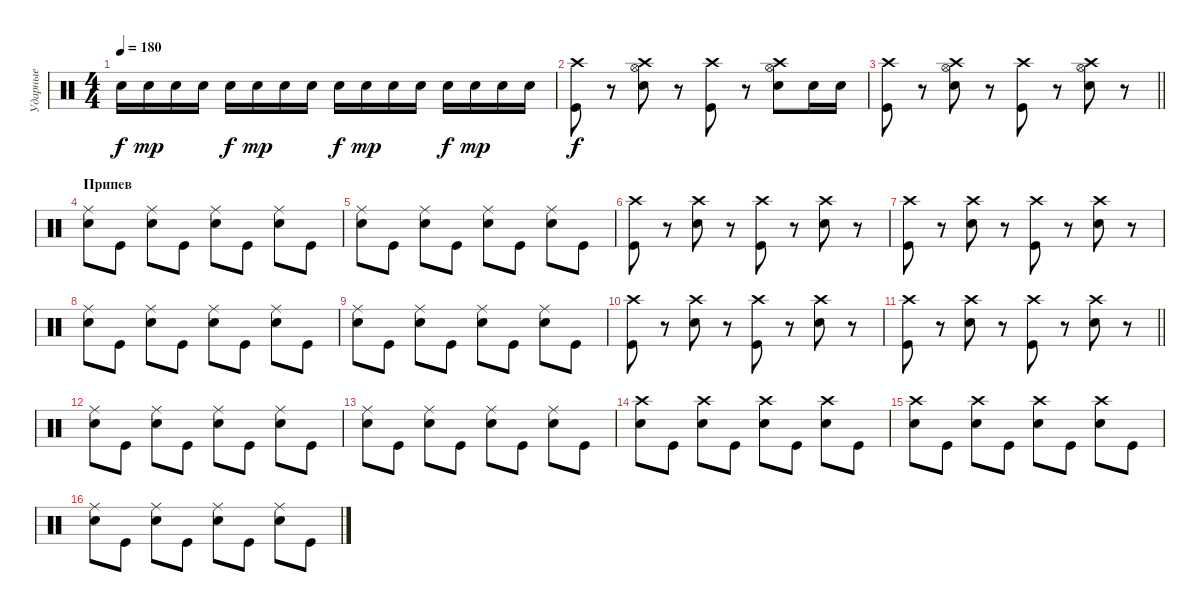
\track ("Ударные" "Ударные") {instrument percussion}
\staff {score}
\articulation defaults
\ts (4 4)
\tempo 180
\clef neutral
\ks c "Electric Snare (hit)".16{dy f} "Electric Snare (hit)".16{dy mp} "Electric Snare (hit)".16 "Electric Snare (hit)".16 "Electric Snare (hit)".16{dy f} "Electric Snare (hit)".16{dy mp} "Electric Snare (hit)".16 "Electric Snare (hit)".16 "Electric Snare (hit)".16{dy f} "Electric Snare (hit)".16{dy mp} "Electric Snare (hit)".16 "Electric Snare (hit)".16 "Electric Snare (hit)".16{dy f} "Electric Snare (hit)".16{dy mp} "Electric Snare (hit)".16 "Electric Snare (hit)".16
|
("Crash high (hit)" "Kick (hit)").8{dy f} r.8 ("Crash high (hit)" "Hi-Hat (open)" "Electric Snare (hit)").8 r.8 ("Crash high (hit)" "Kick (hit)").8 r.8 ("Crash high (hit)" "Hi-Hat (open)" "Electric Snare (hit)").8 "Electric Snare (hit)".16 "Electric Snare (hit)".16 |
\barLineRight lightlight
("Crash high (hit)" "Kick (hit)").8 r.8 ("Crash high (hit)" "Hi-Hat (open)" "Electric Snare (hit)").8 r.8 ("Crash high (hit)" "Kick (hit)").8 r.8 ("Crash high (hit)" "Hi-Hat (open)" "Electric Snare (hit)").8 r.8 |
\section ("" "Припев")
("Ride (middle)" "Electric Snare (hit)").8 "Kick (hit)".8 ("Ride (middle)" "Electric Snare (hit)").8 "Kick (hit)".8 ("Ride (middle)" "Electric Snare (hit)").8 "Kick (hit)".8 ("Ride (middle)" "Electric Snare (hit)").8 "Kick (hit)".8 |
("Ride (middle)" "Electric Snare (hit)").8 "Kick (hit)".8 ("Ride (middle)" "Electric Snare (hit)").8 "Kick (hit)".8 ("Ride (middle)" "Electric Snare (hit)").8 "Kick (hit)".8 ("Ride (middle)" "Electric Snare (hit)").8 "Kick (hit)".8 |
("Crash high (hit)" "Kick (hit)").8 r.8 ("Crash high (hit)" "Electric Snare (hit)").8 r.8 ("Crash high (hit)" "Kick (hit)").8 r.8 ("Crash high (hit)" "Electric Snare (hit)").8 r.8 |
("Crash high (hit)" "Kick (hit)").8 r.8 ("Crash high (hit)" "Electric Snare (hit)").8 r.8 ("Crash high (hit)" "Kick (hit)").8 r.8 ("Crash high (hit)" "Electric Snare (hit)").8 r.8 |
("Ride (middle)" "Electric Snare (hit)").8 "Kick (hit)".8 ("Ride (middle)" "Electric Snare (hit)").8 "Kick (hit)".8 ("Ride (middle)" "Electric Snare (hit)").8 "Kick (hit)".8 ("Ride (middle)" "Electric Snare (hit)").8 "Kick (hit)".8 |
("Ride (middle)" "Electric Snare (hit)").8 "Kick (hit)".8 ("Ride (middle)" "Electric Snare (hit)").8 "Kick (hit)".8 ("Ride (middle)" "Electric Snare (hit)").8 "Kick (hit)".8 ("Ride (middle)" "Electric Snare (hit)").8 "Kick (hit)".8 |
("Crash high (hit)" "Kick (hit)").8 r.8 ("Crash high (hit)" "Electric Snare (hit)").8 r.8 ("Crash high (hit)" "Kick (hit)").8 r.8 ("Crash high (hit)" "Electric Snare (hit)").8 r.8 |
\barLineRight lightlight
("Crash high (hit)" "Kick (hit)").8 r.8 ("Crash high (hit)" "Electric Snare (hit)").8 r.8 ("Crash high (hit)" "Kick (hit)").8 r.8 ("Crash high (hit)" "Electric Snare (hit)").8 r.8 |
\section ("" " ")
("Ride (middle)" "Electric Snare (hit)").8 "Kick (hit)".8 ("Ride (middle)" "Electric Snare (hit)").8 "Kick (hit)".8 ("Ride (middle)" "Electric Snare (hit)").8 "Kick (hit)".8 ("Ride (middle)" "Electric Snare (hit)").8 "Kick (hit)".8 |
("Ride (middle)" "Electric Snare (hit)").8 "Kick (hit)".8 ("Ride (middle)" "Electric Snare (hit)").8 "Kick (hit)".8 ("Ride (middle)" "Electric Snare (hit)").8 "Kick (hit)".8 ("Ride (middle)" "Electric Snare (hit)").8 "Kick (hit)".8 |
("Crash high (hit)" "Electric Snare (hit)").8 "Kick (hit)".8 ("Crash high (hit)" "Electric Snare (hit)").8 "Kick (hit)".8 ("Crash high (hit)" "Electric Snare (hit)").8 "Kick (hit)".8 ("Crash high (hit)" "Electric Snare (hit)").8 "Kick (hit)".8 |
("Crash high (hit)" "Electric Snare (hit)").8 "Kick (hit)".8 ("Crash high (hit)" "Electric Snare (hit)").8 "Kick (hit)".8 ("Crash high (hit)" "Electric Snare (hit)").8 "Kick (hit)".8 ("Crash high (hit)" "Electric Snare (hit)").8 "Kick (hit)".8 |
("Ride (middle)" "Electric Snare (hit)").8 "Kick (hit)".8 ("Ride (middle)" "Electric Snare (hit)").8 "Kick (hit)".8 ("Ride (middle)" "Electric Snare (hit)").8 "Kick (hit)".8 ("Ride (middle)" "Electric Snare (hit)").8 "Kick (hit)".8
